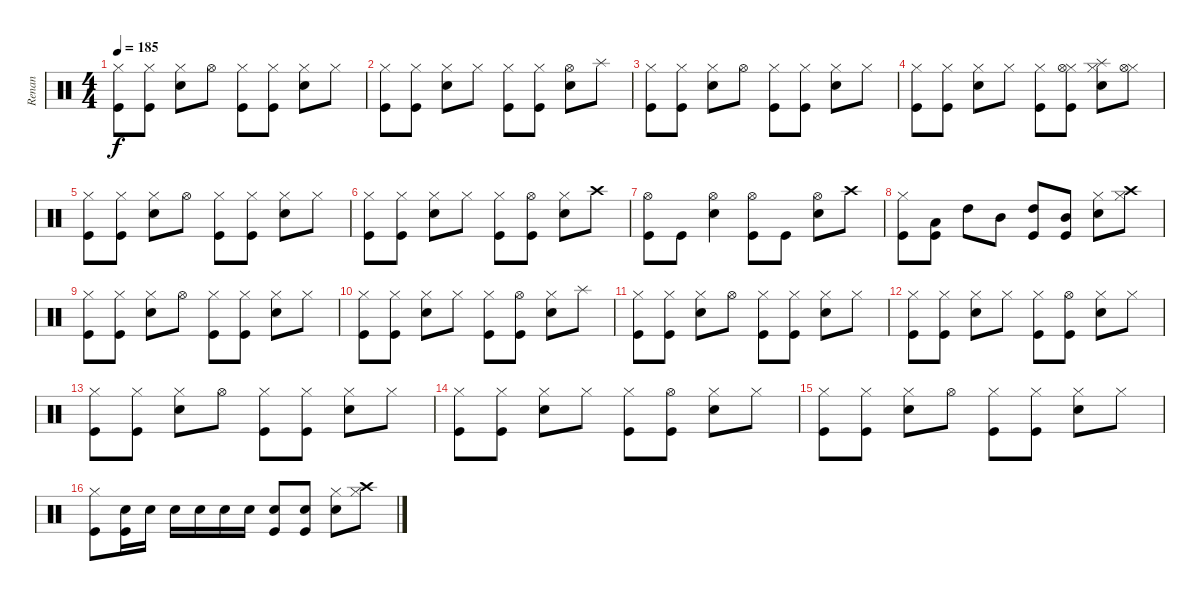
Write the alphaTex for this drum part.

\track ("Renan" "Renan") {instrument percussion}
\staff {score}
\articulation defaults
\ts (4 4)
\tempo 185
\clef neutral
\ks c
("Hi-Hat (closed)" "Kick (hit)").8{dy f} ("Hi-Hat (closed)" "Kick (hit)").8 ("Hi-Hat (closed)" "Snare (hit) 2").8 "Hi-Hat (open)".8 ("Hi-Hat (closed)" "Kick (hit)").8 ("Hi-Hat (closed)" "Kick (hit)").8 ("Hi-Hat (closed)" "Snare (hit) 2").8 "Hi-Hat (closed)".8 |
("Hi-Hat (closed)" "Kick (hit)").8 ("Hi-Hat (closed)" "Kick (hit)").8 ("Hi-Hat (closed)" "Snare (hit) 2").8 "Hi-Hat (closed)".8 ("Hi-Hat (closed)" "Kick (hit)").8 ("Hi-Hat (closed)" "Kick (hit)").8 ("Hi-Hat (open)" "Snare (hit) 2").8 "Splash (hit)".8 |
("Hi-Hat (closed)" "Kick (hit)").8 ("Hi-Hat (closed)" "Kick (hit)").8 ("Hi-Hat (closed)" "Snare (hit) 2").8 "Hi-Hat (open)".8 ("Hi-Hat (closed)" "Kick (hit)").8 ("Hi-Hat (closed)" "Kick (hit)").8 ("Hi-Hat (closed)" "Snare (hit) 2").8 "Hi-Hat (closed)".8 |
("Hi-Hat (closed)" "Kick (hit)").8 ("Hi-Hat (closed)" "Kick (hit)").8 ("Hi-Hat (closed)" "Snare (hit) 2").8 "Hi-Hat (closed)".8 ("Hi-Hat (closed)" "Kick (hit)").8 ("Hi-Hat (closed)" "Hi-Hat (open)" "Kick (hit)").8 ("Hi-Hat (closed)" "Splash (hit)" "Snare (hit) 2").8 ("Hi-Hat (closed)" "Hi-Hat (open)").8 |
("Hi-Hat (closed)" "Kick (hit)").8 ("Hi-Hat (closed)" "Kick (hit)").8 ("Hi-Hat (closed)" "Snare (hit) 2").8 "Hi-Hat (open)".8 ("Hi-Hat (closed)" "Kick (hit)").8 ("Hi-Hat (closed)" "Kick (hit)").8 ("Hi-Hat (closed)" "Snare (hit) 2").8 "Hi-Hat (closed)".8 |
("Hi-Hat (closed)" "Kick (hit)").8 ("Hi-Hat (closed)" "Kick (hit)").8 ("Hi-Hat (closed)" "Snare (hit) 2").8 "Hi-Hat (closed)".8 ("Hi-Hat (closed)" "Kick (hit)").8 ("Hi-Hat (open)" "Kick (hit)").8 ("Hi-Hat (closed)" "Snare (hit) 2").8 "Crash high (hit)".8 |
("Hi-Hat (open)" "Kick (hit)").8 "Kick (hit)".8 ("Hi-Hat (open)" "Snare (hit) 2").4 ("Hi-Hat (open)" "Kick (hit)").8 "Kick (hit)".8 ("Hi-Hat (open)" "Snare (hit) 2").8 "Crash high (hit)".8 |
("Hi-Hat (closed)" "Kick (hit)").8 ("Low Floor Tom (hit)" "Kick (hit)").8 "High Tom (hit)".8 "Mid Tom (hit)".8 ("High Tom (hit)" "Kick (hit)").8 ("Mid Tom (hit)" "Kick (hit)").8 ("Hi-Hat (closed)" "Snare (hit) 2").8 ("Hi-Hat (closed)" "Crash high (hit)").8 |
("Hi-Hat (closed)" "Kick (hit)").8 ("Hi-Hat (closed)" "Kick (hit)").8 ("Hi-Hat (closed)" "Snare (hit) 2").8 "Hi-Hat (open)".8 ("Hi-Hat (closed)" "Kick (hit)").8 ("Hi-Hat (closed)" "Kick (hit)").8 ("Hi-Hat (closed)" "Snare (hit) 2").8 "Hi-Hat (closed)".8 |
("Hi-Hat (closed)" "Kick (hit)").8 ("Hi-Hat (closed)" "Kick (hit)").8 ("Hi-Hat (closed)" "Snare (hit) 2").8 "Hi-Hat (closed)".8 ("Hi-Hat (closed)" "Kick (hit)").8 ("Hi-Hat (open)" "Kick (hit)").8 ("Hi-Hat (closed)" "Snare (hit) 2").8 "Splash (hit)".8 |
("Hi-Hat (closed)" "Kick (hit)").8 ("Hi-Hat (closed)" "Kick (hit)").8 ("Hi-Hat (closed)" "Snare (hit) 2").8 "Hi-Hat (open)".8 ("Hi-Hat (closed)" "Kick (hit)").8 ("Hi-Hat (closed)" "Kick (hit)").8 ("Hi-Hat (closed)" "Snare (hit) 2").8 "Hi-Hat (closed)".8 |
("Hi-Hat (closed)" "Kick (hit)").8 ("Hi-Hat (closed)" "Kick (hit)").8 ("Hi-Hat (closed)" "Snare (hit) 2").8 "Hi-Hat (closed)".8 ("Hi-Hat (closed)" "Kick (hit)").8 ("Hi-Hat (open)" "Kick (hit)").8 ("Hi-Hat (closed)" "Snare (hit) 2").8 "Hi-Hat (closed)".8 |
("Hi-Hat (closed)" "Kick (hit)").8 ("Hi-Hat (closed)" "Kick (hit)").8 ("Hi-Hat (closed)" "Snare (hit) 2").8 "Hi-Hat (open)".8 ("Hi-Hat (closed)" "Kick (hit)").8 ("Hi-Hat (closed)" "Kick (hit)").8 ("Hi-Hat (closed)" "Snare (hit) 2").8 "Hi-Hat (closed)".8 |
("Hi-Hat (closed)" "Kick (hit)").8 ("Hi-Hat (closed)" "Kick (hit)").8 ("Hi-Hat (closed)" "Snare (hit) 2").8 "Hi-Hat (closed)".8 ("Hi-Hat (closed)" "Kick (hit)").8 ("Hi-Hat (open)" "Kick (hit)").8 ("Hi-Hat (closed)" "Snare (hit) 2").8 "Hi-Hat (closed)".8 |
("Hi-Hat (closed)" "Kick (hit)").8 ("Hi-Hat (closed)" "Kick (hit)").8 ("Hi-Hat (closed)" "Snare (hit) 2").8 "Hi-Hat (open)".8 ("Hi-Hat (closed)" "Kick (hit)").8 ("Hi-Hat (closed)" "Kick (hit)").8 ("Hi-Hat (closed)" "Snare (hit) 2").8 "Hi-Hat (closed)".8 |
("Hi-Hat (closed)" "Kick (hit)").8 ("Electric Snare (hit)" "Kick (hit)").16 "Electric Snare (hit)".16 "Electric Snare (hit)".16 "Electric Snare (hit)".16 "Electric Snare (hit)".16 "Electric Snare (hit)".16 ("Electric Snare (hit)" "Kick (hit)").8 ("Electric Snare (hit)" "Kick (hit)").8 ("Hi-Hat (closed)" "Snare (hit) 2").8 ("Hi-Hat (closed)" "Crash high (hit)").8
